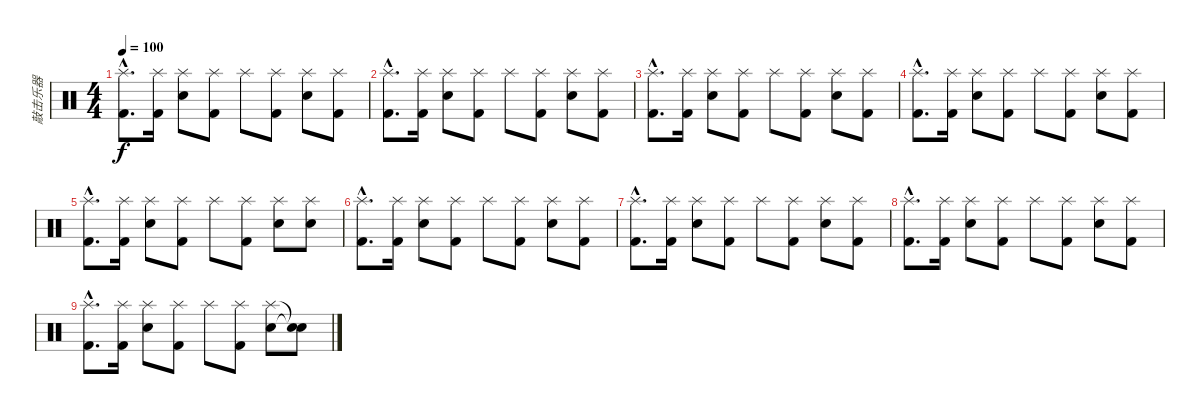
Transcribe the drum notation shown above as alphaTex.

\track ("敲击乐器" "敲击乐器") {instrument percussion}
\staff {score}
\articulation defaults
\ts (4 4)
\tempo 100
\clef neutral
\ks c
("Kick (hit) 2"{hac} "Splash (hit)"{hac}).8{d dy f} ("Kick (hit) 2" "Splash (hit)").16 ("Electric Snare (hit)" "Splash (hit)").8 ("Kick (hit) 2" "Splash (hit)").8 "Splash (hit)".8 ("Kick (hit) 2" "Splash (hit)").8 ("Electric Snare (hit)" "Splash (hit)").8 ("Kick (hit) 2" "Splash (hit)").8 |
("Kick (hit) 2"{hac} "Splash (hit)"{hac}).8{d} ("Kick (hit) 2" "Splash (hit)").16 ("Electric Snare (hit)" "Splash (hit)").8 ("Kick (hit) 2" "Splash (hit)").8 "Splash (hit)".8 ("Kick (hit) 2" "Splash (hit)").8 ("Electric Snare (hit)" "Splash (hit)").8 ("Kick (hit) 2" "Splash (hit)").8 |
("Kick (hit) 2"{hac} "Splash (hit)"{hac}).8{d} ("Kick (hit) 2" "Splash (hit)").16 ("Electric Snare (hit)" "Splash (hit)").8 ("Kick (hit) 2" "Splash (hit)").8 "Splash (hit)".8 ("Kick (hit) 2" "Splash (hit)").8 ("Electric Snare (hit)" "Splash (hit)").8 ("Kick (hit) 2" "Splash (hit)").8 |
("Kick (hit) 2"{hac} "Splash (hit)"{hac}).8{d} ("Kick (hit) 2" "Splash (hit)").16 ("Electric Snare (hit)" "Splash (hit)").8 ("Kick (hit) 2" "Splash (hit)").8 "Splash (hit)".8 ("Kick (hit) 2" "Splash (hit)").8 ("Electric Snare (hit)" "Splash (hit)").8 ("Kick (hit) 2" "Splash (hit)").8 |
("Kick (hit) 2"{hac} "Splash (hit)"{hac}).8{d} ("Kick (hit) 2" "Splash (hit)").16 ("Electric Snare (hit)" "Splash (hit)").8 ("Kick (hit) 2" "Splash (hit)").8 "Splash (hit)".8 ("Kick (hit) 2" "Splash (hit)").8 ("Electric Snare (hit)" "Splash (hit)").8 ("Electric Snare (hit)" "Splash (hit)").8 |
("Kick (hit) 2"{hac} "Splash (hit)"{hac}).8{d} ("Kick (hit) 2" "Splash (hit)").16 ("Electric Snare (hit)" "Splash (hit)").8 ("Kick (hit) 2" "Splash (hit)").8 "Splash (hit)".8 ("Kick (hit) 2" "Splash (hit)").8 ("Electric Snare (hit)" "Splash (hit)").8 ("Kick (hit) 2" "Splash (hit)").8 |
("Kick (hit) 2"{hac} "Splash (hit)"{hac}).8{d} ("Kick (hit) 2" "Splash (hit)").16 ("Electric Snare (hit)" "Splash (hit)").8 ("Kick (hit) 2" "Splash (hit)").8 "Splash (hit)".8 ("Kick (hit) 2" "Splash (hit)").8 ("Electric Snare (hit)" "Splash (hit)").8 ("Kick (hit) 2" "Splash (hit)").8 |
("Kick (hit) 2"{hac} "Splash (hit)"{hac}).8{d} ("Kick (hit) 2" "Splash (hit)").16 ("Electric Snare (hit)" "Splash (hit)").8 ("Kick (hit) 2" "Splash (hit)").8 "Splash (hit)".8 ("Kick (hit) 2" "Splash (hit)").8 ("Electric Snare (hit)" "Splash (hit)").8 ("Kick (hit) 2" "Splash (hit)").8 |
("Kick (hit) 2"{hac} "Splash (hit)"{hac}).8{d} ("Kick (hit) 2" "Splash (hit)").16 ("Electric Snare (hit)" "Splash (hit)").8 ("Kick (hit) 2" "Splash (hit)").8 "Splash (hit)".8 ("Kick (hit) 2" "Splash (hit)").8 ("Electric Snare (hit)" "Splash (hit)").8 ("Snare (hit)"{t} "Snare (hit)"{t}).8
